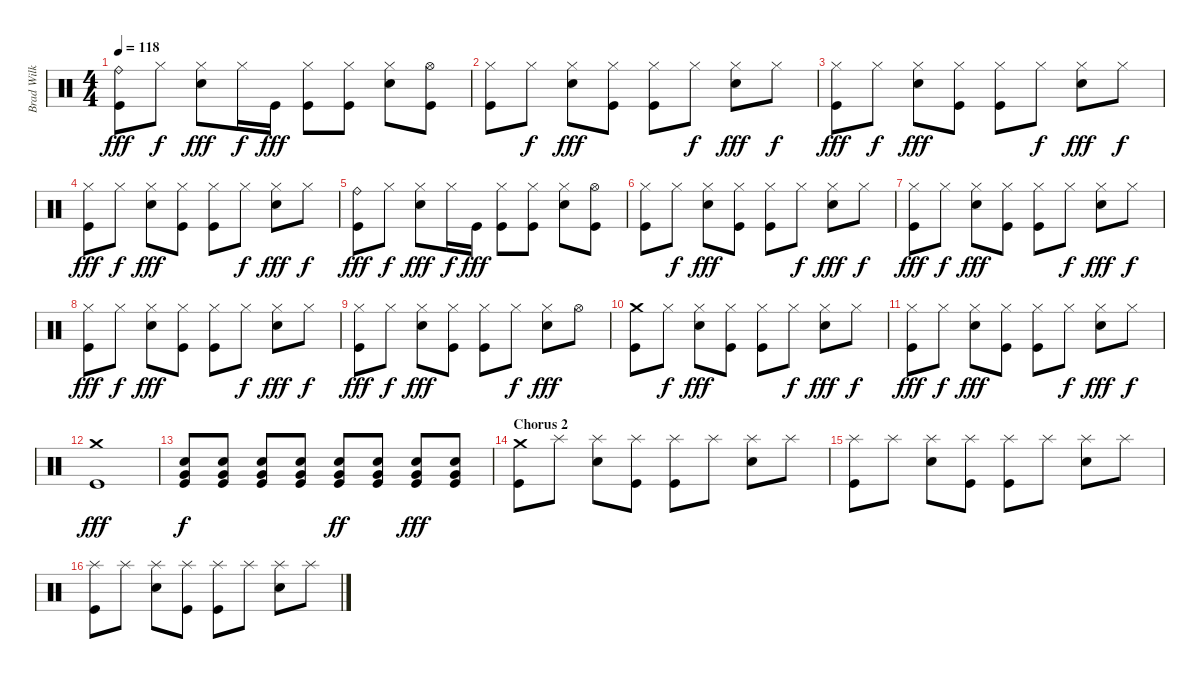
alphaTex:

\track ("Brad Wilk - Drums" "Brad Wilk ") {instrument percussion}
\staff {score}
\articulation defaults
\ts (4 4)
\tempo 118
\clef neutral
\ks c
("Ride (bell)" "Kick (hit)").8{dy fff} "Hi-Hat (closed)".8{dy f} ("Hi-Hat (closed)" "Snare (hit) 2").8{dy fff} "Hi-Hat (closed)".16{dy f} "Kick (hit)".16{dy fff} ("Hi-Hat (closed)" "Kick (hit)").8 ("Hi-Hat (closed)" "Kick (hit)").8 ("Hi-Hat (closed)" "Snare (hit) 2").8 ("Hi-Hat (open)" "Kick (hit)").8 |
("Hi-Hat (closed)" "Kick (hit)").8 "Hi-Hat (closed)".8{dy f} ("Hi-Hat (closed)" "Snare (hit) 2").8{dy fff} ("Hi-Hat (closed)" "Kick (hit)").8 ("Hi-Hat (closed)" "Kick (hit)").8 "Hi-Hat (closed)".8{dy f} ("Hi-Hat (closed)" "Snare (hit) 2").8{dy fff} "Hi-Hat (closed)".8{dy f} |
("Hi-Hat (closed)" "Kick (hit)").8{dy fff} "Hi-Hat (closed)".8{dy f} ("Hi-Hat (closed)" "Snare (hit) 2").8{dy fff} ("Hi-Hat (closed)" "Kick (hit)").8 ("Hi-Hat (closed)" "Kick (hit)").8 "Hi-Hat (closed)".8{dy f} ("Hi-Hat (closed)" "Snare (hit) 2").8{dy fff} "Hi-Hat (closed)".8{dy f} |
("Hi-Hat (closed)" "Kick (hit)").8{dy fff} "Hi-Hat (closed)".8{dy f} ("Hi-Hat (closed)" "Snare (hit) 2").8{dy fff} ("Hi-Hat (closed)" "Kick (hit)").8 ("Hi-Hat (closed)" "Kick (hit)").8 "Hi-Hat (closed)".8{dy f} ("Hi-Hat (closed)" "Snare (hit) 2").8{dy fff} "Hi-Hat (closed)".8{dy f} |
("Ride (bell)" "Kick (hit)").8{dy fff} "Hi-Hat (closed)".8{dy f} ("Hi-Hat (closed)" "Snare (hit) 2").8{dy fff} "Hi-Hat (closed)".16{dy f} "Kick (hit)".16{dy fff} ("Hi-Hat (closed)" "Kick (hit)").8 ("Hi-Hat (closed)" "Kick (hit)").8 ("Hi-Hat (closed)" "Snare (hit) 2").8 ("Hi-Hat (open)" "Kick (hit)").8 |
("Hi-Hat (closed)" "Kick (hit)").8 "Hi-Hat (closed)".8{dy f} ("Hi-Hat (closed)" "Snare (hit) 2").8{dy fff} ("Hi-Hat (closed)" "Kick (hit)").8 ("Hi-Hat (closed)" "Kick (hit)").8 "Hi-Hat (closed)".8{dy f} ("Hi-Hat (closed)" "Snare (hit) 2").8{dy fff} "Hi-Hat (closed)".8{dy f} |
("Hi-Hat (closed)" "Kick (hit)").8{dy fff} "Hi-Hat (closed)".8{dy f} ("Hi-Hat (closed)" "Snare (hit) 2").8{dy fff} ("Hi-Hat (closed)" "Kick (hit)").8 ("Hi-Hat (closed)" "Kick (hit)").8 "Hi-Hat (closed)".8{dy f} ("Hi-Hat (closed)" "Snare (hit) 2").8{dy fff} "Hi-Hat (closed)".8{dy f} |
("Hi-Hat (closed)" "Kick (hit)").8{dy fff} "Hi-Hat (closed)".8{dy f} ("Hi-Hat (closed)" "Snare (hit) 2").8{dy fff} ("Hi-Hat (closed)" "Kick (hit)").8 ("Hi-Hat (closed)" "Kick (hit)").8 "Hi-Hat (closed)".8{dy f} ("Hi-Hat (closed)" "Snare (hit) 2").8{dy fff} "Hi-Hat (closed)".8{dy f} |
("Hi-Hat (closed)" "Kick (hit)").8{dy fff} "Hi-Hat (closed)".8{dy f} ("Hi-Hat (closed)" "Snare (hit) 2").8{dy fff} ("Hi-Hat (closed)" "Kick (hit)").8 ("Hi-Hat (closed)" "Kick (hit)").8 "Hi-Hat (closed)".8{dy f} ("Hi-Hat (closed)" "Snare (hit) 2").8{dy fff} "Hi-Hat (open)".8 |
("Crash medium (hit)" "Kick (hit)").8 "Hi-Hat (closed)".8{dy f} ("Hi-Hat (closed)" "Snare (hit) 2").8{dy fff} ("Hi-Hat (closed)" "Kick (hit)").8 ("Hi-Hat (closed)" "Kick (hit)").8 "Hi-Hat (closed)".8{dy f} ("Hi-Hat (closed)" "Snare (hit) 2").8{dy fff} "Hi-Hat (closed)".8{dy f} |
("Hi-Hat (closed)" "Kick (hit)").8{dy fff} "Hi-Hat (closed)".8{dy f} ("Hi-Hat (closed)" "Snare (hit) 2").8{dy fff} ("Hi-Hat (closed)" "Kick (hit)").8 ("Hi-Hat (closed)" "Kick (hit)").8 "Hi-Hat (closed)".8{dy f} ("Hi-Hat (closed)" "Snare (hit) 2").8{dy fff} "Hi-Hat (closed)".8{dy f} |
("Crash medium (hit)" "Kick (hit)").1{dy fff} |
("Snare (hit) 2" "Very Low Tom (hit)" "Kick (hit)").8{dy f} ("Snare (hit) 2" "Very Low Tom (hit)" "Kick (hit)").8 ("Snare (hit) 2" "Very Low Tom (hit)" "Kick (hit)").8 ("Snare (hit) 2" "Very Low Tom (hit)" "Kick (hit)").8 ("Snare (hit) 2" "Very Low Tom (hit)" "Kick (hit)").8{dy ff} ("Snare (hit) 2" "Very Low Tom (hit)" "Kick (hit)").8 ("Snare (hit) 2" "Very Low Tom (hit)" "Kick (hit)").8{dy fff} ("Snare (hit) 2" "Very Low Tom (hit)" "Kick (hit)").8 |
\section ("" "Chorus 2")
("Crash medium (hit)" "Kick (hit)").8 "Splash (hit)".8 ("Splash (hit)" "Snare (hit) 2").8 ("Splash (hit)" "Kick (hit)").8 ("Splash (hit)" "Kick (hit)").8 "Splash (hit)".8 ("Splash (hit)" "Snare (hit) 2").8 "Splash (hit)".8 |
("Splash (hit)" "Kick (hit)").8 "Splash (hit)".8 ("Splash (hit)" "Snare (hit) 2").8 ("Splash (hit)" "Kick (hit)").8 ("Splash (hit)" "Kick (hit)").8 "Splash (hit)".8 ("Splash (hit)" "Snare (hit) 2").8 "Splash (hit)".8 |
("Splash (hit)" "Kick (hit)").8 "Splash (hit)".8 ("Splash (hit)" "Snare (hit) 2").8 ("Splash (hit)" "Kick (hit)").8 ("Splash (hit)" "Kick (hit)").8 "Splash (hit)".8 ("Splash (hit)" "Snare (hit) 2").8 "Splash (hit)".8
